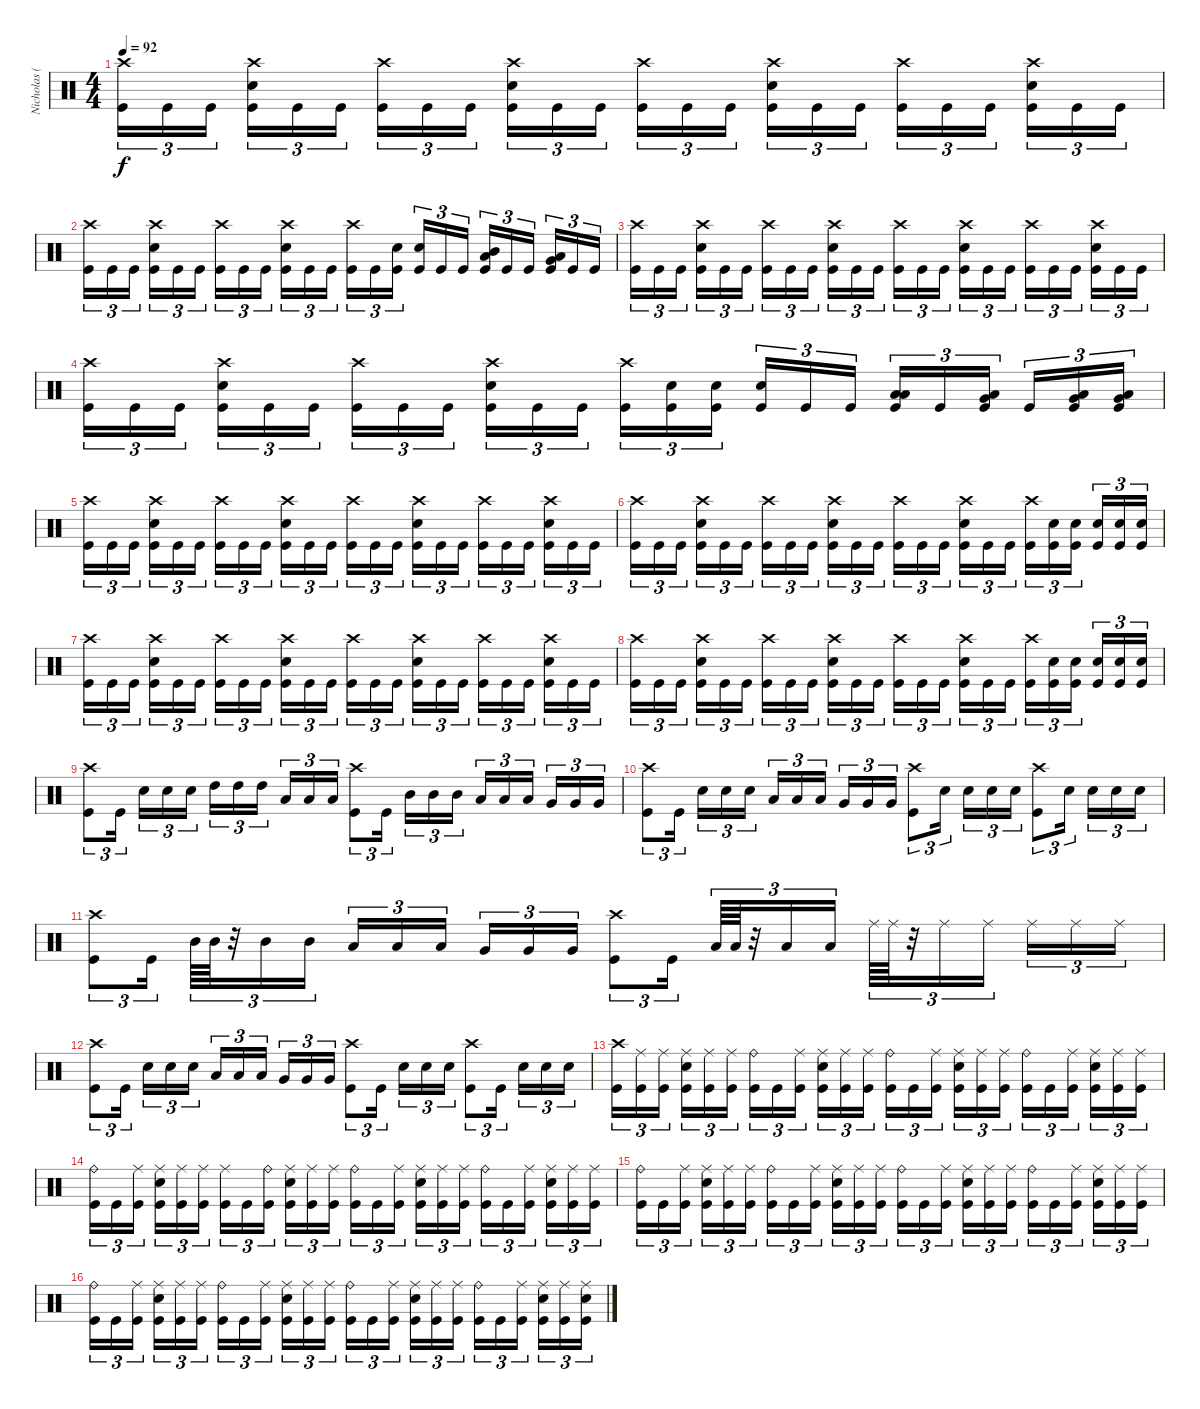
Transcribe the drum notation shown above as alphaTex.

\track ("Nicholas (Drums)" "Nicholas (") {instrument percussion}
\staff {score}
\articulation defaults
\ts (4 4)
\tempo 92
\clef neutral
\ks c
("Crash high (hit)" "Kick (hit)").16{tu (3 2) dy f} "Kick (hit)".16{tu (3 2)} "Kick (hit)".16{tu (3 2)} ("Crash high (hit)" "Electric Snare (hit)" "Kick (hit)").16{tu (3 2)} "Kick (hit)".16{tu (3 2)} "Kick (hit)".16{tu (3 2)} ("Crash high (hit)" "Kick (hit)").16{tu (3 2)} "Kick (hit)".16{tu (3 2)} "Kick (hit)".16{tu (3 2)} ("Crash high (hit)" "Electric Snare (hit)" "Kick (hit)").16{tu (3 2)} "Kick (hit)".16{tu (3 2)} "Kick (hit)".16{tu (3 2)} ("Crash high (hit)" "Kick (hit)").16{tu (3 2)} "Kick (hit)".16{tu (3 2)} "Kick (hit)".16{tu (3 2)} ("Crash high (hit)" "Electric Snare (hit)" "Kick (hit)").16{tu (3 2)} "Kick (hit)".16{tu (3 2)} "Kick (hit)".16{tu (3 2)} ("Crash high (hit)" "Kick (hit)").16{tu (3 2)} "Kick (hit)".16{tu (3 2)} "Kick (hit)".16{tu (3 2)} ("Crash high (hit)" "Electric Snare (hit)" "Kick (hit)").16{tu (3 2)} "Kick (hit)".16{tu (3 2)} "Kick (hit)".16{tu (3 2)} |
("Crash high (hit)" "Kick (hit)").16{tu (3 2)} "Kick (hit)".16{tu (3 2)} "Kick (hit)".16{tu (3 2)} ("Crash high (hit)" "Electric Snare (hit)" "Kick (hit)").16{tu (3 2)} "Kick (hit)".16{tu (3 2)} "Kick (hit)".16{tu (3 2)} ("Crash high (hit)" "Kick (hit)").16{tu (3 2)} "Kick (hit)".16{tu (3 2)} "Kick (hit)".16{tu (3 2)} ("Crash high (hit)" "Electric Snare (hit)" "Kick (hit)").16{tu (3 2)} "Kick (hit)".16{tu (3 2)} "Kick (hit)".16{tu (3 2)} ("Crash high (hit)" "Kick (hit)").16{tu (3 2)} "Kick (hit)".16{tu (3 2)} ("Electric Snare (hit)" "Kick (hit)").16{tu (3 2)} ("Electric Snare (hit)" "Kick (hit)").16{tu (3 2)} "Kick (hit)".16{tu (3 2)} "Kick (hit)".16{tu (3 2)} ("Mid Tom (hit)" "Low Tom (hit)" "Kick (hit)").16{tu (3 2) bd 60} "Kick (hit)".16{tu (3 2)} "Kick (hit)".16{tu (3 2)} ("Low Tom (hit)" "Very Low Tom (hit)" "Kick (hit)").16{tu (3 2) bd 60} "Kick (hit)".16{tu (3 2)} "Kick (hit)".16{tu (3 2)} |
("Crash high (hit)" "Kick (hit)").16{tu (3 2)} "Kick (hit)".16{tu (3 2)} "Kick (hit)".16{tu (3 2)} ("Crash high (hit)" "Electric Snare (hit)" "Kick (hit)").16{tu (3 2)} "Kick (hit)".16{tu (3 2)} "Kick (hit)".16{tu (3 2)} ("Crash high (hit)" "Kick (hit)").16{tu (3 2)} "Kick (hit)".16{tu (3 2)} "Kick (hit)".16{tu (3 2)} ("Crash high (hit)" "Electric Snare (hit)" "Kick (hit)").16{tu (3 2)} "Kick (hit)".16{tu (3 2)} "Kick (hit)".16{tu (3 2)} ("Crash high (hit)" "Kick (hit)").16{tu (3 2)} "Kick (hit)".16{tu (3 2)} "Kick (hit)".16{tu (3 2)} ("Crash high (hit)" "Electric Snare (hit)" "Kick (hit)").16{tu (3 2)} "Kick (hit)".16{tu (3 2)} "Kick (hit)".16{tu (3 2)} ("Crash high (hit)" "Kick (hit)").16{tu (3 2)} "Kick (hit)".16{tu (3 2)} "Kick (hit)".16{tu (3 2)} ("Crash high (hit)" "Electric Snare (hit)" "Kick (hit)").16{tu (3 2)} "Kick (hit)".16{tu (3 2)} "Kick (hit)".16{tu (3 2)} |
("Crash high (hit)" "Kick (hit)").16{tu (3 2)} "Kick (hit)".16{tu (3 2)} "Kick (hit)".16{tu (3 2)} ("Crash high (hit)" "Electric Snare (hit)" "Kick (hit)").16{tu (3 2)} "Kick (hit)".16{tu (3 2)} "Kick (hit)".16{tu (3 2)} ("Crash high (hit)" "Kick (hit)").16{tu (3 2)} "Kick (hit)".16{tu (3 2)} "Kick (hit)".16{tu (3 2)} ("Crash high (hit)" "Electric Snare (hit)" "Kick (hit)").16{tu (3 2)} "Kick (hit)".16{tu (3 2)} "Kick (hit)".16{tu (3 2)} ("Crash high (hit)" "Kick (hit)").16{tu (3 2)} ("Electric Snare (hit)" "Kick (hit)").16{tu (3 2)} ("Electric Snare (hit)" "Kick (hit)").16{tu (3 2)} ("Electric Snare (hit)" "Kick (hit)").16{tu (3 2)} "Kick (hit)".16{tu (3 2)} "Kick (hit)".16{tu (3 2)} ("Low Tom (hit)" "Low Tom (hit)" "Kick (hit)").16{tu (3 2) bd 60} "Kick (hit)".16{tu (3 2)} ("Low Tom (hit)" "Very Low Tom (hit)" "Kick (hit)").16{tu (3 2) bd 60} "Kick (hit)".16{tu (3 2)} ("Low Tom (hit)" "Very Low Tom (hit)" "Kick (hit)").16{tu (3 2) bd 60} ("Low Tom (hit)" "Very Low Tom (hit)" "Kick (hit)").16{tu (3 2) bd 60} |
("Crash high (hit)" "Kick (hit)").16{tu (3 2)} "Kick (hit)".16{tu (3 2)} "Kick (hit)".16{tu (3 2)} ("Crash high (hit)" "Electric Snare (hit)" "Kick (hit)").16{tu (3 2)} "Kick (hit)".16{tu (3 2)} "Kick (hit)".16{tu (3 2)} ("Crash high (hit)" "Kick (hit)").16{tu (3 2)} "Kick (hit)".16{tu (3 2)} "Kick (hit)".16{tu (3 2)} ("Crash high (hit)" "Electric Snare (hit)" "Kick (hit)").16{tu (3 2)} "Kick (hit)".16{tu (3 2)} "Kick (hit)".16{tu (3 2)} ("Crash high (hit)" "Kick (hit)").16{tu (3 2)} "Kick (hit)".16{tu (3 2)} "Kick (hit)".16{tu (3 2)} ("Crash high (hit)" "Electric Snare (hit)" "Kick (hit)").16{tu (3 2)} "Kick (hit)".16{tu (3 2)} "Kick (hit)".16{tu (3 2)} ("Crash high (hit)" "Kick (hit)").16{tu (3 2)} "Kick (hit)".16{tu (3 2)} "Kick (hit)".16{tu (3 2)} ("Crash high (hit)" "Electric Snare (hit)" "Kick (hit)").16{tu (3 2)} "Kick (hit)".16{tu (3 2)} "Kick (hit)".16{tu (3 2)} |
("Crash high (hit)" "Kick (hit)").16{tu (3 2)} "Kick (hit)".16{tu (3 2)} "Kick (hit)".16{tu (3 2)} ("Crash high (hit)" "Electric Snare (hit)" "Kick (hit)").16{tu (3 2)} "Kick (hit)".16{tu (3 2)} "Kick (hit)".16{tu (3 2)} ("Crash high (hit)" "Kick (hit)").16{tu (3 2)} "Kick (hit)".16{tu (3 2)} "Kick (hit)".16{tu (3 2)} ("Crash high (hit)" "Electric Snare (hit)" "Kick (hit)").16{tu (3 2)} "Kick (hit)".16{tu (3 2)} "Kick (hit)".16{tu (3 2)} ("Crash high (hit)" "Kick (hit)").16{tu (3 2)} "Kick (hit)".16{tu (3 2)} "Kick (hit)".16{tu (3 2)} ("Crash high (hit)" "Electric Snare (hit)" "Kick (hit)").16{tu (3 2)} "Kick (hit)".16{tu (3 2)} "Kick (hit)".16{tu (3 2)} ("Crash high (hit)" "Kick (hit)").16{tu (3 2)} ("Electric Snare (hit)" "Kick (hit)").16{tu (3 2)} ("Electric Snare (hit)" "Kick (hit)").16{tu (3 2)} ("Electric Snare (hit)" "Kick (hit)").16{tu (3 2)} ("Electric Snare (hit)" "Kick (hit)").16{tu (3 2)} ("Electric Snare (hit)" "Kick (hit)").16{tu (3 2)} |
("Crash high (hit)" "Kick (hit)").16{tu (3 2)} "Kick (hit)".16{tu (3 2)} "Kick (hit)".16{tu (3 2)} ("Crash high (hit)" "Electric Snare (hit)" "Kick (hit)").16{tu (3 2)} "Kick (hit)".16{tu (3 2)} "Kick (hit)".16{tu (3 2)} ("Crash high (hit)" "Kick (hit)").16{tu (3 2)} "Kick (hit)".16{tu (3 2)} "Kick (hit)".16{tu (3 2)} ("Crash high (hit)" "Electric Snare (hit)" "Kick (hit)").16{tu (3 2)} "Kick (hit)".16{tu (3 2)} "Kick (hit)".16{tu (3 2)} ("Crash high (hit)" "Kick (hit)").16{tu (3 2)} "Kick (hit)".16{tu (3 2)} "Kick (hit)".16{tu (3 2)} ("Crash high (hit)" "Electric Snare (hit)" "Kick (hit)").16{tu (3 2)} "Kick (hit)".16{tu (3 2)} "Kick (hit)".16{tu (3 2)} ("Crash high (hit)" "Kick (hit)").16{tu (3 2)} "Kick (hit)".16{tu (3 2)} "Kick (hit)".16{tu (3 2)} ("Crash high (hit)" "Electric Snare (hit)" "Kick (hit)").16{tu (3 2)} "Kick (hit)".16{tu (3 2)} "Kick (hit)".16{tu (3 2)} |
("Crash high (hit)" "Kick (hit)").16{tu (3 2)} "Kick (hit)".16{tu (3 2)} "Kick (hit)".16{tu (3 2)} ("Crash high (hit)" "Electric Snare (hit)" "Kick (hit)").16{tu (3 2)} "Kick (hit)".16{tu (3 2)} "Kick (hit)".16{tu (3 2)} ("Crash high (hit)" "Kick (hit)").16{tu (3 2)} "Kick (hit)".16{tu (3 2)} "Kick (hit)".16{tu (3 2)} ("Crash high (hit)" "Electric Snare (hit)" "Kick (hit)").16{tu (3 2)} "Kick (hit)".16{tu (3 2)} "Kick (hit)".16{tu (3 2)} ("Crash high (hit)" "Kick (hit)").16{tu (3 2)} "Kick (hit)".16{tu (3 2)} "Kick (hit)".16{tu (3 2)} ("Crash high (hit)" "Electric Snare (hit)" "Kick (hit)").16{tu (3 2)} "Kick (hit)".16{tu (3 2)} "Kick (hit)".16{tu (3 2)} ("Crash high (hit)" "Kick (hit)").16{tu (3 2)} ("Electric Snare (hit)" "Kick (hit)").16{tu (3 2)} ("Electric Snare (hit)" "Kick (hit)").16{tu (3 2)} ("Electric Snare (hit)" "Kick (hit)").16{tu (3 2)} ("Electric Snare (hit)" "Kick (hit)").16{tu (3 2)} ("Electric Snare (hit)" "Kick (hit)").16{tu (3 2)} |
("Crash high (hit)" "Kick (hit)").8{tu (3 2)} "Kick (hit)".16{tu (3 2)} "Electric Snare (hit)".16{tu (3 2)} "Electric Snare (hit)".16{tu (3 2)} "Electric Snare (hit)".16{tu (3 2)} "High Tom (hit)".16{tu (3 2)} "High Tom (hit)".16{tu (3 2)} "High Tom (hit)".16{tu (3 2)} "Low Tom (hit)".16{tu (3 2)} "Low Tom (hit)".16{tu (3 2)} "Low Tom (hit)".16{tu (3 2)} ("Crash high (hit)" "Kick (hit)").8{tu (3 2)} "Kick (hit)".16{tu (3 2)} "Mid Tom (hit)".16{tu (3 2)} "Mid Tom (hit)".16{tu (3 2)} "Mid Tom (hit)".16{tu (3 2)} "Low Tom (hit)".16{tu (3 2)} "Low Tom (hit)".16{tu (3 2)} "Low Tom (hit)".16{tu (3 2)} "Very Low Tom (hit)".16{tu (3 2)} "Very Low Tom (hit)".16{tu (3 2)} "Very Low Tom (hit)".16{tu (3 2)} |
("Crash high (hit)" "Kick (hit)").8{tu (3 2)} "Kick (hit)".16{tu (3 2)} "Electric Snare (hit)".16{tu (3 2)} "Electric Snare (hit)".16{tu (3 2)} "Electric Snare (hit)".16{tu (3 2)} "Low Tom (hit)".16{tu (3 2)} "Low Tom (hit)".16{tu (3 2)} "Low Tom (hit)".16{tu (3 2)} "Very Low Tom (hit)".16{tu (3 2)} "Very Low Tom (hit)".16{tu (3 2)} "Very Low Tom (hit)".16{tu (3 2)} ("Crash high (hit)" "Kick (hit)").8{tu (3 2)} "Electric Snare (hit)".16{tu (3 2)} "Electric Snare (hit)".16{tu (3 2)} "Electric Snare (hit)".16{tu (3 2)} "Electric Snare (hit)".16{tu (3 2)} ("Crash high (hit)" "Kick (hit)").8{tu (3 2)} "Electric Snare (hit)".16{tu (3 2)} "Electric Snare (hit)".16{tu (3 2)} "Electric Snare (hit)".16{tu (3 2)} "Electric Snare (hit)".16{tu (3 2)} |
("Crash high (hit)" "Kick (hit)").8{tu (3 2)} "Kick (hit)".16{tu (3 2)} "Mid Tom (hit)".64{tu (3 2)} "Mid Tom (hit)".64{tu (3 2)} r.32{tu (3 2)} "Mid Tom (hit)".16{tu (3 2)} "Mid Tom (hit)".16{tu (3 2)} "Low Tom (hit)".16{tu (3 2)} "Low Tom (hit)".16{tu (3 2)} "Low Tom (hit)".16{tu (3 2)} "Very Low Tom (hit)".16{tu (3 2)} "Very Low Tom (hit)".16{tu (3 2)} "Very Low Tom (hit)".16{tu (3 2)} ("Crash high (hit)" "Kick (hit)").8{tu (3 2)} "Kick (hit)".16{tu (3 2)} "Low Tom (hit)".64{tu (3 2)} "Low Tom (hit)".64{tu (3 2)} r.32{tu (3 2)} "Low Tom (hit)".16{tu (3 2)} "Low Tom (hit)".16{tu (3 2)} "Ride (middle)".64{tu (3 2)} "Ride (middle)".64{tu (3 2)} r.32{tu (3 2)} "Ride (middle)".16{tu (3 2)} "Ride (middle)".16{tu (3 2)} "Ride (middle)".16{tu (3 2)} "Ride (middle)".16{tu (3 2)} "Ride (middle)".16{tu (3 2)} |
("Crash high (hit)" "Kick (hit)").8{tu (3 2)} "Kick (hit)".16{tu (3 2)} "Electric Snare (hit)".16{tu (3 2)} "Electric Snare (hit)".16{tu (3 2)} "Electric Snare (hit)".16{tu (3 2)} "Low Tom (hit)".16{tu (3 2)} "Low Tom (hit)".16{tu (3 2)} "Low Tom (hit)".16{tu (3 2)} "Very Low Tom (hit)".16{tu (3 2)} "Very Low Tom (hit)".16{tu (3 2)} "Very Low Tom (hit)".16{tu (3 2)} ("Crash high (hit)" "Kick (hit)").8{tu (3 2)} "Kick (hit)".16{tu (3 2)} "Electric Snare (hit)".16{tu (3 2)} "Electric Snare (hit)".16{tu (3 2)} "Electric Snare (hit)".16{tu (3 2)} ("Crash high (hit)" "Kick (hit)").8{tu (3 2)} "Kick (hit)".16{tu (3 2)} "Electric Snare (hit)".16{tu (3 2)} "Electric Snare (hit)".16{tu (3 2)} "Electric Snare (hit)".16{tu (3 2)} |
("Crash high (hit)" "Kick (hit)").16{tu (3 2)} ("Ride (middle)" "Kick (hit)").16{tu (3 2)} ("Ride (middle)" "Kick (hit)").16{tu (3 2)} ("Ride (middle)" "Electric Snare (hit)" "Kick (hit)").16{tu (3 2)} ("Ride (middle)" "Kick (hit)").16{tu (3 2)} ("Ride (middle)" "Kick (hit)").16{tu (3 2)} ("Ride (bell)" "Kick (hit)").16{tu (3 2)} "Kick (hit)".16{tu (3 2)} ("Ride (middle)" "Kick (hit)").16{tu (3 2)} ("Ride (middle)" "Electric Snare (hit)" "Kick (hit)").16{tu (3 2)} ("Ride (middle)" "Kick (hit)").16{tu (3 2)} ("Ride (middle)" "Kick (hit)").16{tu (3 2)} ("Ride (bell)" "Kick (hit)").16{tu (3 2)} "Kick (hit)".16{tu (3 2)} ("Ride (middle)" "Kick (hit)").16{tu (3 2)} ("Ride (middle)" "Electric Snare (hit)" "Kick (hit)").16{tu (3 2)} ("Ride (middle)" "Kick (hit)").16{tu (3 2)} ("Ride (middle)" "Kick (hit)").16{tu (3 2)} ("Ride (bell)" "Kick (hit)").16{tu (3 2)} "Kick (hit)".16{tu (3 2)} ("Ride (middle)" "Kick (hit)").16{tu (3 2)} ("Ride (middle)" "Electric Snare (hit)" "Kick (hit)").16{tu (3 2)} ("Ride (middle)" "Kick (hit)").16{tu (3 2)} ("Ride (middle)" "Kick (hit)").16{tu (3 2)} |
("Ride (bell)" "Kick (hit)").16{tu (3 2)} "Kick (hit)".16{tu (3 2)} ("Ride (middle)" "Kick (hit)").16{tu (3 2)} ("Ride (middle)" "Electric Snare (hit)" "Kick (hit)").16{tu (3 2)} ("Ride (middle)" "Kick (hit)").16{tu (3 2)} ("Ride (middle)" "Kick (hit)").16{tu (3 2)} ("Ride (middle)" "Kick (hit)").16{tu (3 2)} "Kick (hit)".16{tu (3 2)} ("Ride (bell)" "Kick (hit)").16{tu (3 2)} ("Ride (middle)" "Electric Snare (hit)" "Kick (hit)").16{tu (3 2)} ("Ride (middle)" "Kick (hit)").16{tu (3 2)} ("Ride (middle)" "Kick (hit)").16{tu (3 2)} ("Ride (bell)" "Kick (hit)").16{tu (3 2)} "Kick (hit)".16{tu (3 2)} ("Ride (middle)" "Kick (hit)").16{tu (3 2)} ("Ride (middle)" "Electric Snare (hit)" "Kick (hit)").16{tu (3 2)} ("Ride (middle)" "Kick (hit)").16{tu (3 2)} ("Ride (middle)" "Kick (hit)").16{tu (3 2)} ("Ride (bell)" "Kick (hit)").16{tu (3 2)} "Kick (hit)".16{tu (3 2)} ("Ride (middle)" "Kick (hit)").16{tu (3 2)} ("Ride (middle)" "Electric Snare (hit)" "Kick (hit)").16{tu (3 2)} ("Ride (middle)" "Kick (hit)").16{tu (3 2)} ("Ride (middle)" "Kick (hit)").16{tu (3 2)} |
("Ride (bell)" "Kick (hit)").16{tu (3 2)} "Kick (hit)".16{tu (3 2)} ("Ride (middle)" "Kick (hit)").16{tu (3 2)} ("Ride (middle)" "Electric Snare (hit)" "Kick (hit)").16{tu (3 2)} ("Ride (middle)" "Kick (hit)").16{tu (3 2)} ("Ride (middle)" "Kick (hit)").16{tu (3 2)} ("Ride (bell)" "Kick (hit)").16{tu (3 2)} "Kick (hit)".16{tu (3 2)} ("Ride (middle)" "Kick (hit)").16{tu (3 2)} ("Ride (middle)" "Electric Snare (hit)" "Kick (hit)").16{tu (3 2)} ("Ride (middle)" "Kick (hit)").16{tu (3 2)} ("Ride (middle)" "Kick (hit)").16{tu (3 2)} ("Ride (bell)" "Kick (hit)").16{tu (3 2)} "Kick (hit)".16{tu (3 2)} ("Ride (middle)" "Kick (hit)").16{tu (3 2)} ("Ride (middle)" "Electric Snare (hit)" "Kick (hit)").16{tu (3 2)} ("Ride (middle)" "Kick (hit)").16{tu (3 2)} ("Ride (middle)" "Kick (hit)").16{tu (3 2)} ("Ride (bell)" "Kick (hit)").16{tu (3 2)} "Kick (hit)".16{tu (3 2)} ("Ride (middle)" "Kick (hit)").16{tu (3 2)} ("Ride (middle)" "Electric Snare (hit)" "Kick (hit)").16{tu (3 2)} ("Ride (middle)" "Kick (hit)").16{tu (3 2)} ("Ride (middle)" "Kick (hit)").16{tu (3 2)} |
("Ride (bell)" "Kick (hit)").16{tu (3 2)} "Kick (hit)".16{tu (3 2)} ("Ride (middle)" "Kick (hit)").16{tu (3 2)} ("Ride (middle)" "Electric Snare (hit)" "Kick (hit)").16{tu (3 2)} ("Ride (middle)" "Kick (hit)").16{tu (3 2)} ("Ride (middle)" "Kick (hit)").16{tu (3 2)} ("Ride (bell)" "Kick (hit)").16{tu (3 2)} "Kick (hit)".16{tu (3 2)} ("Ride (middle)" "Kick (hit)").16{tu (3 2)} ("Ride (middle)" "Electric Snare (hit)" "Kick (hit)").16{tu (3 2)} ("Ride (middle)" "Kick (hit)").16{tu (3 2)} ("Ride (middle)" "Kick (hit)").16{tu (3 2)} ("Ride (bell)" "Kick (hit)").16{tu (3 2)} "Kick (hit)".16{tu (3 2)} ("Ride (middle)" "Kick (hit)").16{tu (3 2)} ("Ride (middle)" "Electric Snare (hit)" "Kick (hit)").16{tu (3 2)} ("Ride (middle)" "Kick (hit)").16{tu (3 2)} ("Ride (middle)" "Kick (hit)").16{tu (3 2)} ("Ride (bell)" "Kick (hit)").16{tu (3 2)} "Kick (hit)".16{tu (3 2)} ("Ride (middle)" "Kick (hit)").16{tu (3 2)} ("Ride (middle)" "Electric Snare (hit)" "Kick (hit)").16{tu (3 2)} ("Ride (middle)" "Kick (hit)").16{tu (3 2)} ("Ride (middle)" "Electric Snare (hit)" "Kick (hit)").16{tu (3 2)}
